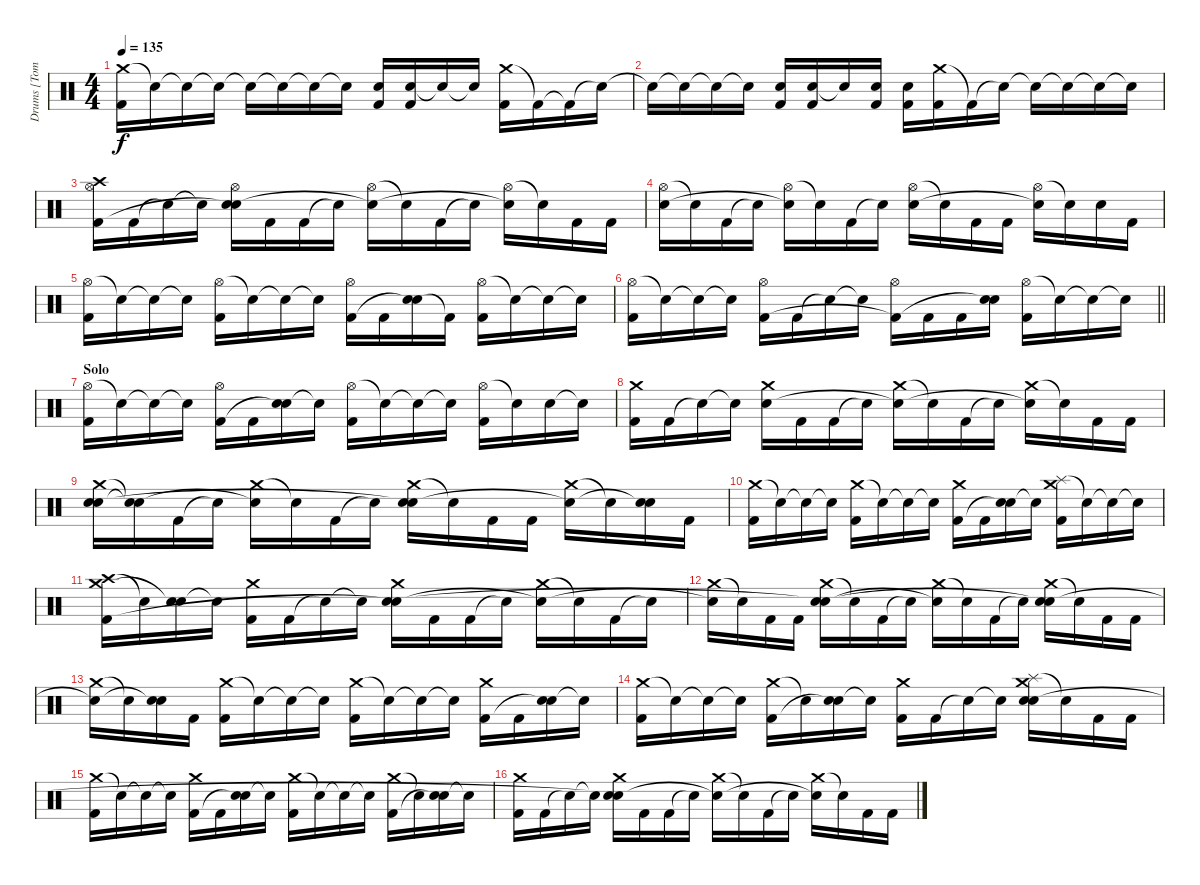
\track ("Drums [Tomas Haake]" "Drums [Tom") {instrument percussion}
\staff {score}
\articulation defaults
\ts (4 4)
\tempo 135
\clef neutral
\ks c
("Crash medium (hit)" "Kick (hit) 2").16{dy f} "Snare (hit)"{t}.16 "Snare (hit)"{t}.16 "Snare (hit)"{t}.16 "Snare (hit)"{t}.16 "Snare (hit)"{t}.16 "Snare (hit)"{t}.16 "Snare (hit)"{t}.16 ("Electric Snare (hit)" "Kick (hit) 2").16 ("Electric Snare (hit)" "Kick (hit) 2").16 "Snare (hit)"{t}.16 "Snare (hit)"{t}.16 ("Crash medium (hit)" "Kick (hit) 2").16 "Kick (hit) 2"{t}.16 "Kick (hit) 2"{t}.16 "Snare (hit)"{t}.16 |
"Snare (hit)"{t}.16 "Snare (hit)"{t}.16 "Snare (hit)"{t}.16 "Snare (hit)"{t}.16 ("Electric Snare (hit)" "Kick (hit) 2").16 ("Electric Snare (hit)" "Kick (hit) 2").16 "Snare (hit)"{t}.16 ("Electric Snare (hit)" "Kick (hit) 2").16 ("Electric Snare (hit)" "Kick (hit) 2").16 ("Crash medium (hit)" "Kick (hit) 2").16 "Kick (hit) 2"{t}.16 "Snare (hit)"{t}.16 "Snare (hit)"{t}.16 "Snare (hit)"{t}.16 "Snare (hit)"{t}.16 "Snare (hit)"{t}.16 |
("Crash high (hit)" "Hi-Hat (open)" "Kick (hit) 2").16 "Kick (hit) 2".16 "Snare (hit)"{t}.16 "Snare (hit)"{t}.16 ("Hi-Hat (open)" "Electric Snare (hit)" "Snare (hit)"{t}).16 "Kick (hit) 2".16 "Kick (hit) 2".16 "Snare (hit)"{t}.16 ("Hi-Hat (open)" "Snare (hit)"{t}).16 "Snare (hit)"{t}.16 "Kick (hit) 2".16 "Snare (hit)"{t}.16 ("Hi-Hat (open)" "Snare (hit)"{t}).16 "Snare (hit)"{t}.16 "Kick (hit) 2".16 "Kick (hit) 2".16 |
("Hi-Hat (open)" "Electric Snare (hit)").16 "Snare (hit)"{t}.16 "Kick (hit) 2".16 "Snare (hit)"{t}.16 ("Hi-Hat (open)" "Snare (hit)"{t}).16 "Snare (hit)"{t}.16 "Kick (hit) 2".16 "Snare (hit)"{t}.16 ("Hi-Hat (open)" "Electric Snare (hit)").16 "Snare (hit)"{t}.16 "Kick (hit) 2".16 "Kick (hit) 2".16 ("Hi-Hat (open)" "Snare (hit)"{t}).16 "Snare (hit)"{t}.16 "Electric Snare (hit)".16 "Kick (hit) 2".16 |
("Hi-Hat (open)" "Kick (hit) 2").16 "Snare (hit)"{t}.16 "Snare (hit)"{t}.16 "Snare (hit)"{t}.16 ("Hi-Hat (open)" "Kick (hit) 2").16 "Snare (hit)"{t}.16 "Snare (hit)"{t}.16 "Snare (hit)"{t}.16 ("Hi-Hat (open)" "Kick (hit) 2").16 "Kick (hit) 2".16 ("Electric Snare (hit)" "Snare (hit)"{t}).16 "Kick (hit) 2"{t}.16 ("Hi-Hat (open)" "Kick (hit) 2").16 "Snare (hit)"{t}.16 "Snare (hit)"{t}.16 "Snare (hit)"{t}.16 |
\barLineRight lightlight
("Hi-Hat (open)" "Kick (hit) 2").16 "Snare (hit)"{t}.16 "Snare (hit)"{t}.16 "Snare (hit)"{t}.16 ("Hi-Hat (open)" "Kick (hit) 2").16 "Kick (hit) 2".16 "Snare (hit)"{t}.16 "Snare (hit)"{t}.16 ("Hi-Hat (open)" "Kick (hit) 2"{t}).16 "Kick (hit) 2".16 "Kick (hit) 2".16 ("Electric Snare (hit)" "Snare (hit)"{t}).16 ("Hi-Hat (open)" "Kick (hit) 2").16 "Snare (hit)"{t}.16 "Snare (hit)"{t}.16 "Snare (hit)"{t}.16 |
\section ("" "Solo")
("Hi-Hat (open)" "Kick (hit) 2").16 "Snare (hit)"{t}.16 "Snare (hit)"{t}.16 "Snare (hit)"{t}.16 ("Hi-Hat (open)" "Kick (hit) 2").16 "Kick (hit) 2".16 ("Electric Snare (hit)" "Snare (hit)"{t}).16 "Snare (hit)"{t}.16 ("Hi-Hat (open)" "Kick (hit) 2").16 "Snare (hit)"{t}.16 "Snare (hit)"{t}.16 "Snare (hit)"{t}.16 ("Hi-Hat (open)" "Kick (hit) 2").16 "Snare (hit)"{t}.16 "Electric Snare (hit)".16 "Snare (hit)"{t}.16 |
("Crash medium (hit)" "Kick (hit) 2").16 "Kick (hit) 2".16 "Snare (hit)"{t}.16 "Snare (hit)"{t}.16 ("Crash medium (hit)" "Electric Snare (hit)").16 "Kick (hit) 2".16 "Kick (hit) 2".16 "Snare (hit)"{t}.16 ("Crash medium (hit)" "Snare (hit)"{t}).16 "Snare (hit)"{t}.16 "Kick (hit) 2".16 "Snare (hit)"{t}.16 ("Crash medium (hit)" "Snare (hit)"{t}).16 "Snare (hit)"{t}.16 "Kick (hit) 2".16 "Kick (hit) 2".16 |
("Crash medium (hit)" "Electric Snare (hit)" "Snare (hit)").16 ("Snare (hit)"{t} "Snare (hit)"{t}).16 "Kick (hit) 2".16 "Snare (hit)"{t}.16 ("Crash medium (hit)" "Snare (hit)"{t}).16 "Snare (hit)"{t}.16 "Kick (hit) 2".16 "Snare (hit)"{t}.16 ("Crash medium (hit)" "Electric Snare (hit)" "Snare (hit)"{t}).16 "Snare (hit)"{t}.16 "Kick (hit) 2".16 "Kick (hit) 2".16 ("Crash medium (hit)" "Snare (hit)"{t}).16 "Snare (hit)"{t}.16 ("Electric Snare (hit)" "Snare (hit)"{t}).16 "Kick (hit) 2".16 |
("Crash medium (hit)" "Kick (hit) 2").16 "Snare (hit)"{t}.16 "Snare (hit)"{t}.16 "Snare (hit)"{t}.16 ("Crash medium (hit)" "Kick (hit) 2").16 "Snare (hit)"{t}.16 "Snare (hit)"{t}.16 "Snare (hit)"{t}.16 ("Crash medium (hit)" "Kick (hit) 2").16 "Kick (hit) 2".16 ("Electric Snare (hit)" "Snare (hit)"{t}).16 "Snare (hit)"{t}.16 ("Splash (hit)" "Crash medium (hit)" "Kick (hit) 2").16 "Snare (hit)"{t}.16 "Snare (hit)"{t}.16 "Snare (hit)"{t}.16 |
("Crash high (hit)" "Crash medium (hit)" "Kick (hit) 2").16 "Snare (hit)"{t}.16 ("Electric Snare (hit)" "Snare (hit)"{t}).16 "Snare (hit)"{t}.16 ("Crash medium (hit)" "Kick (hit) 2").16 "Kick (hit) 2".16 "Snare (hit)"{t}.16 "Snare (hit)"{t}.16 ("Crash medium (hit)" "Electric Snare (hit)" "Snare (hit)"{t}).16 "Kick (hit) 2".16 "Kick (hit) 2".16 "Snare (hit)"{t}.16 ("Crash medium (hit)" "Snare (hit)"{t}).16 "Snare (hit)"{t}.16 "Kick (hit) 2".16 "Snare (hit)"{t}.16 |
("Crash medium (hit)" "Snare (hit)"{t}).16 "Snare (hit)"{t}.16 "Kick (hit) 2".16 "Kick (hit) 2".16 ("Crash medium (hit)" "Electric Snare (hit)" "Snare (hit)"{t}).16 "Snare (hit)"{t}.16 "Kick (hit) 2".16 "Snare (hit)"{t}.16 ("Crash medium (hit)" "Snare (hit)"{t}).16 "Snare (hit)"{t}.16 "Kick (hit) 2".16 "Snare (hit)"{t}.16 ("Crash medium (hit)" "Electric Snare (hit)" "Snare (hit)"{t}).16 "Snare (hit)"{t}.16 "Kick (hit) 2".16 "Kick (hit) 2".16 |
("Crash medium (hit)" "Snare (hit)"{t}).16 "Snare (hit)"{t}.16 ("Electric Snare (hit)" "Snare (hit)"{t}).16 "Kick (hit) 2".16 ("Crash medium (hit)" "Kick (hit) 2").16 "Snare (hit)"{t}.16 "Snare (hit)"{t}.16 "Snare (hit)"{t}.16 ("Crash medium (hit)" "Kick (hit) 2").16 "Snare (hit)"{t}.16 "Snare (hit)"{t}.16 "Snare (hit)"{t}.16 ("Crash medium (hit)" "Kick (hit) 2").16 "Kick (hit) 2".16 ("Electric Snare (hit)" "Snare (hit)"{t}).16 "Snare (hit)"{t}.16 |
("Crash medium (hit)" "Kick (hit) 2").16 "Snare (hit)"{t}.16 "Snare (hit)"{t}.16 "Snare (hit)"{t}.16 ("Crash medium (hit)" "Kick (hit) 2").16 "Snare (hit)"{t}.16 ("Electric Snare (hit)" "Snare (hit)"{t}).16 "Snare (hit)"{t}.16 ("Crash medium (hit)" "Kick (hit) 2").16 "Kick (hit) 2".16 "Snare (hit)"{t}.16 "Snare (hit)"{t}.16 ("Splash (hit)" "Crash medium (hit)" "Electric Snare (hit)" "Snare (hit)").16 "Snare (hit)"{t}.16 "Kick (hit) 2".16 "Kick (hit) 2".16 |
("Crash medium (hit)" "Kick (hit) 2").16 "Snare (hit)"{t}.16 "Snare (hit)"{t}.16 "Snare (hit)"{t}.16 ("Crash medium (hit)" "Kick (hit) 2").16 "Kick (hit) 2".16 ("Electric Snare (hit)" "Snare (hit)"{t}).16 "Snare (hit)"{t}.16 ("Crash medium (hit)" "Kick (hit) 2").16 "Snare (hit)"{t}.16 "Snare (hit)"{t}.16 "Snare (hit)"{t}.16 ("Crash medium (hit)" "Kick (hit) 2").16 "Snare (hit)"{t}.16 ("Electric Snare (hit)" "Snare (hit)"{t}).16 "Snare (hit)"{t}.16 |
("Crash medium (hit)" "Kick (hit) 2").16 "Kick (hit) 2".16 "Snare (hit)"{t}.16 "Snare (hit)"{t}.16 ("Crash medium (hit)" "Electric Snare (hit)" "Snare (hit)"{t}).16 "Kick (hit) 2".16 "Kick (hit) 2".16 "Snare (hit)"{t}.16 ("Crash medium (hit)" "Snare (hit)"{t}).16 "Snare (hit)"{t}.16 "Kick (hit) 2".16 "Snare (hit)"{t}.16 ("Crash medium (hit)" "Snare (hit)"{t}).16 "Snare (hit)"{t}.16 "Kick (hit) 2".16 "Kick (hit) 2".16
